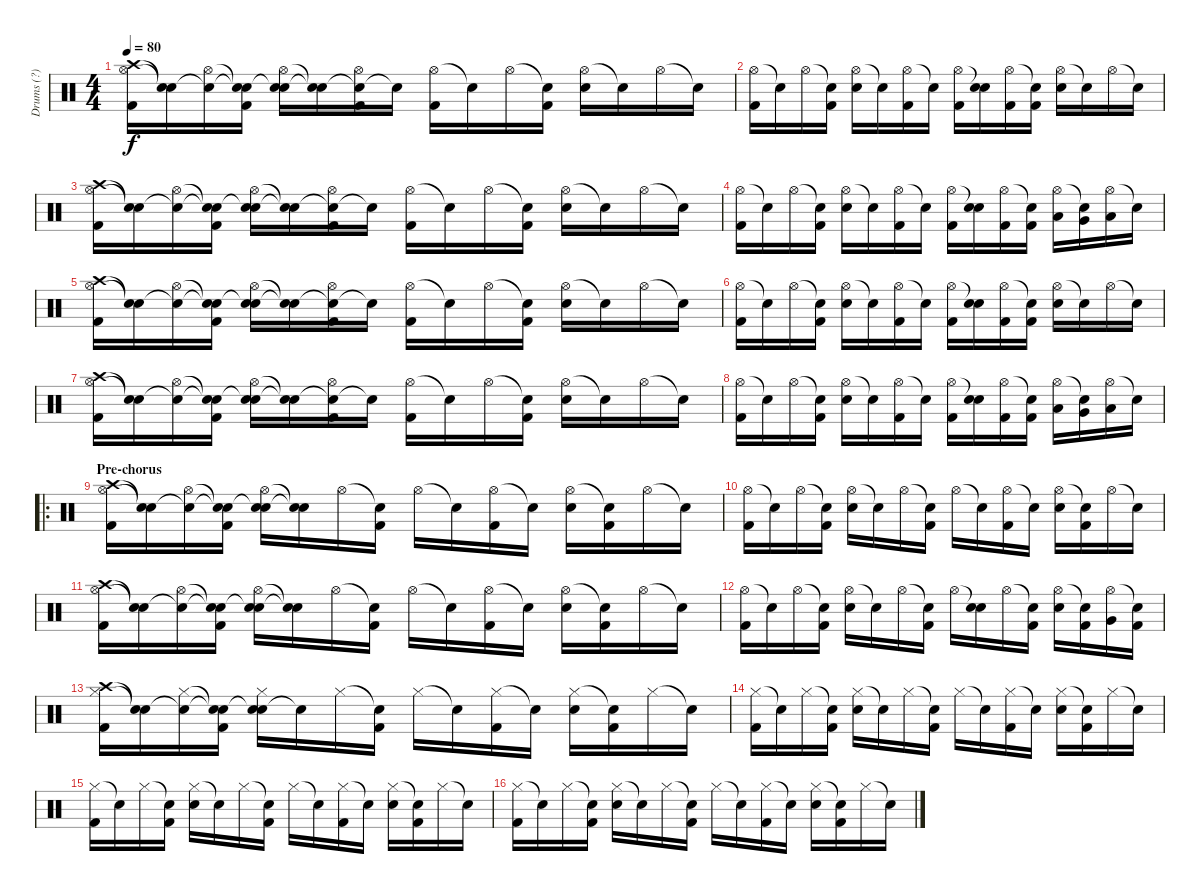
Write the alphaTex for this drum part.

\track ("Drums (?)" "Drums (?)") {instrument percussion}
\staff {score}
\articulation defaults
\ts (4 4)
\tempo 80
\clef neutral
\ks c
("Crash high (hit)" "Hi-Hat (open)" "Kick (hit) 2").16{dy f} ("Snare (hit)"{t} "Snare (hit)"{t}).16 ("Snare (hit)"{t} "Hi-Hat (open)").16 ("Snare (hit)"{t} "Snare (hit)"{t} "Kick (hit) 2").16 ("Snare (hit)"{t} "Hi-Hat (open)" "Electric Snare (hit)").16 ("Snare (hit)"{t} "Snare (hit)"{t}).16 ("Snare (hit)"{t} "Hi-Hat (open)" "Kick (hit) 2").16 "Snare (hit)"{t}.16 ("Hi-Hat (open)" "Kick (hit) 2").16 "Snare (hit)"{t}.16 "Hi-Hat (open)".16 ("Snare (hit)"{t} "Kick (hit) 2").16 ("Hi-Hat (open)" "Electric Snare (hit)").16 "Snare (hit)"{t}.16 "Hi-Hat (open)".16 "Snare (hit)"{t}.16 |
("Hi-Hat (open)" "Kick (hit) 2").16 "Snare (hit)"{t}.16 "Hi-Hat (open)".16 ("Snare (hit)"{t} "Kick (hit) 2").16 ("Hi-Hat (open)" "Electric Snare (hit)").16 "Snare (hit)"{t}.16 ("Hi-Hat (open)" "Kick (hit) 2").16 "Snare (hit)"{t}.16 ("Hi-Hat (open)" "Kick (hit) 2").16 ("Snare (hit)"{t} "Electric Snare (hit)").16 ("Hi-Hat (open)" "Kick (hit) 2").16 ("Snare (hit)"{t} "Kick (hit) 2").16 ("Hi-Hat (open)" "Electric Snare (hit)").16 "Snare (hit)"{t}.16 "Hi-Hat (open)".16 "Snare (hit)"{t}.16 |
("Crash high (hit)" "Hi-Hat (open)" "Kick (hit) 2").16 ("Snare (hit)"{t} "Snare (hit)"{t}).16 ("Snare (hit)"{t} "Hi-Hat (open)").16 ("Snare (hit)"{t} "Snare (hit)"{t} "Kick (hit) 2").16 ("Snare (hit)"{t} "Hi-Hat (open)" "Electric Snare (hit)").16 ("Snare (hit)"{t} "Snare (hit)"{t}).16 ("Snare (hit)"{t} "Hi-Hat (open)" "Kick (hit) 2").16 "Snare (hit)"{t}.16 ("Hi-Hat (open)" "Kick (hit) 2").16 "Snare (hit)"{t}.16 "Hi-Hat (open)".16 ("Snare (hit)"{t} "Kick (hit) 2").16 ("Hi-Hat (open)" "Electric Snare (hit)").16 "Snare (hit)"{t}.16 "Hi-Hat (open)".16 "Snare (hit)"{t}.16 |
("Hi-Hat (open)" "Kick (hit) 2").16 "Snare (hit)"{t}.16 "Hi-Hat (open)".16 ("Snare (hit)"{t} "Kick (hit) 2").16 ("Hi-Hat (open)" "Electric Snare (hit)").16 "Snare (hit)"{t}.16 ("Hi-Hat (open)" "Kick (hit) 2").16 "Snare (hit)"{t}.16 ("Hi-Hat (open)" "Kick (hit) 2").16 ("Snare (hit)"{t} "Electric Snare (hit)").16 ("Hi-Hat (open)" "Kick (hit) 2").16 ("Snare (hit)"{t} "Kick (hit) 2").16 ("Hi-Hat (open)" "Low Tom (hit)").16 ("Snare (hit)"{t} "Very Low Tom (hit)").16 ("Hi-Hat (open)" "Low Floor Tom (hit)").16 "Snare (hit)"{t}.16 |
("Crash high (hit)" "Hi-Hat (open)" "Kick (hit) 2").16 ("Snare (hit)"{t} "Snare (hit)"{t}).16 ("Snare (hit)"{t} "Hi-Hat (open)").16 ("Snare (hit)"{t} "Snare (hit)"{t} "Kick (hit) 2").16 ("Snare (hit)"{t} "Hi-Hat (open)" "Electric Snare (hit)").16 ("Snare (hit)"{t} "Snare (hit)"{t}).16 ("Snare (hit)"{t} "Hi-Hat (open)" "Kick (hit) 2").16 "Snare (hit)"{t}.16 ("Hi-Hat (open)" "Kick (hit) 2").16 "Snare (hit)"{t}.16 "Hi-Hat (open)".16 ("Snare (hit)"{t} "Kick (hit) 2").16 ("Hi-Hat (open)" "Electric Snare (hit)").16 "Snare (hit)"{t}.16 "Hi-Hat (open)".16 "Snare (hit)"{t}.16 |
("Hi-Hat (open)" "Kick (hit) 2").16 "Snare (hit)"{t}.16 "Hi-Hat (open)".16 ("Snare (hit)"{t} "Kick (hit) 2").16 ("Hi-Hat (open)" "Electric Snare (hit)").16 "Snare (hit)"{t}.16 ("Hi-Hat (open)" "Kick (hit) 2").16 "Snare (hit)"{t}.16 ("Hi-Hat (open)" "Kick (hit) 2").16 ("Snare (hit)"{t} "Electric Snare (hit)").16 ("Hi-Hat (open)" "Kick (hit) 2").16 ("Snare (hit)"{t} "Kick (hit) 2").16 ("Hi-Hat (open)" "Electric Snare (hit)").16 "Snare (hit)"{t}.16 "Hi-Hat (open)".16 "Snare (hit)"{t}.16 |
("Crash high (hit)" "Hi-Hat (open)" "Kick (hit) 2").16 ("Snare (hit)"{t} "Snare (hit)"{t}).16 ("Snare (hit)"{t} "Hi-Hat (open)").16 ("Snare (hit)"{t} "Snare (hit)"{t} "Kick (hit) 2").16 ("Snare (hit)"{t} "Hi-Hat (open)" "Electric Snare (hit)").16 ("Snare (hit)"{t} "Snare (hit)"{t}).16 ("Snare (hit)"{t} "Hi-Hat (open)" "Kick (hit) 2").16 "Snare (hit)"{t}.16 ("Hi-Hat (open)" "Kick (hit) 2").16 "Snare (hit)"{t}.16 "Hi-Hat (open)".16 ("Snare (hit)"{t} "Kick (hit) 2").16 ("Hi-Hat (open)" "Electric Snare (hit)").16 "Snare (hit)"{t}.16 "Hi-Hat (open)".16 "Snare (hit)"{t}.16 |
("Hi-Hat (open)" "Kick (hit) 2").16 "Snare (hit)"{t}.16 "Hi-Hat (open)".16 ("Snare (hit)"{t} "Kick (hit) 2").16 ("Hi-Hat (open)" "Electric Snare (hit)").16 "Snare (hit)"{t}.16 ("Hi-Hat (open)" "Kick (hit) 2").16 "Snare (hit)"{t}.16 ("Hi-Hat (open)" "Kick (hit) 2").16 ("Snare (hit)"{t} "Electric Snare (hit)").16 ("Hi-Hat (open)" "Kick (hit) 2").16 ("Snare (hit)"{t} "Kick (hit) 2").16 ("Hi-Hat (open)" "Low Tom (hit)").16 ("Snare (hit)"{t} "Very Low Tom (hit)").16 ("Hi-Hat (open)" "Low Floor Tom (hit)").16 "Snare (hit)"{t}.16 |
\ro
\section ("" "Pre-chorus")
("Crash high (hit)" "Hi-Hat (open)" "Kick (hit) 2").16 ("Snare (hit)"{t} "Snare (hit)"{t}).16 ("Snare (hit)"{t} "Hi-Hat (open)").16 ("Snare (hit)"{t} "Snare (hit)"{t} "Kick (hit) 2").16 ("Snare (hit)"{t} "Hi-Hat (open)" "Electric Snare (hit)").16 ("Snare (hit)"{t} "Snare (hit)"{t}).16 "Hi-Hat (open)".16 ("Snare (hit)"{t} "Kick (hit) 2").16 "Hi-Hat (open)".16 "Snare (hit)"{t}.16 ("Hi-Hat (open)" "Kick (hit) 2").16 "Snare (hit)"{t}.16 ("Hi-Hat (open)" "Electric Snare (hit)").16 ("Snare (hit)"{t} "Kick (hit) 2").16 "Hi-Hat (open)".16 "Snare (hit)"{t}.16 |
("Hi-Hat (open)" "Kick (hit) 2").16 "Snare (hit)"{t}.16 "Hi-Hat (open)".16 ("Snare (hit)"{t} "Kick (hit) 2").16 ("Hi-Hat (open)" "Electric Snare (hit)").16 "Snare (hit)"{t}.16 "Hi-Hat (open)".16 ("Snare (hit)"{t} "Kick (hit) 2").16 "Hi-Hat (open)".16 "Snare (hit)"{t}.16 ("Hi-Hat (open)" "Kick (hit) 2").16 "Snare (hit)"{t}.16 ("Hi-Hat (open)" "Electric Snare (hit)").16 ("Snare (hit)"{t} "Kick (hit) 2").16 "Hi-Hat (open)".16 "Snare (hit)"{t}.16 |
("Crash high (hit)" "Hi-Hat (open)" "Kick (hit) 2").16 ("Snare (hit)"{t} "Snare (hit)"{t}).16 ("Snare (hit)"{t} "Hi-Hat (open)").16 ("Snare (hit)"{t} "Snare (hit)"{t} "Kick (hit) 2").16 ("Snare (hit)"{t} "Hi-Hat (open)" "Electric Snare (hit)").16 ("Snare (hit)"{t} "Snare (hit)"{t}).16 "Hi-Hat (open)".16 ("Snare (hit)"{t} "Kick (hit) 2").16 "Hi-Hat (open)".16 "Snare (hit)"{t}.16 ("Hi-Hat (open)" "Kick (hit) 2").16 "Snare (hit)"{t}.16 ("Hi-Hat (open)" "Electric Snare (hit)").16 ("Snare (hit)"{t} "Kick (hit) 2").16 "Hi-Hat (open)".16 "Snare (hit)"{t}.16 |
("Hi-Hat (open)" "Kick (hit) 2").16 "Snare (hit)"{t}.16 "Hi-Hat (open)".16 ("Snare (hit)"{t} "Kick (hit) 2").16 ("Hi-Hat (open)" "Electric Snare (hit)").16 "Snare (hit)"{t}.16 "Hi-Hat (open)".16 ("Snare (hit)"{t} "Kick (hit) 2").16 "Hi-Hat (open)".16 ("Snare (hit)"{t} "Electric Snare (hit)").16 "Hi-Hat (open)".16 ("Snare (hit)"{t} "Kick (hit) 2").16 ("Hi-Hat (open)" "Electric Snare (hit)").16 ("Snare (hit)"{t} "Kick (hit) 2").16 ("Hi-Hat (open)" "Very Low Tom (hit)").16 ("Snare (hit)"{t} "Kick (hit) 2").16 |
("Crash high (hit)" "Hi-Hat (closed)" "Kick (hit) 2").16 ("Snare (hit)"{t} "Snare (hit)"{t}).16 ("Snare (hit)"{t} "Hi-Hat (closed)").16 ("Snare (hit)"{t} "Snare (hit)"{t} "Kick (hit) 2").16 ("Snare (hit)"{t} "Hi-Hat (closed)" "Electric Snare (hit)").16 "Snare (hit)"{t}.16 "Hi-Hat (closed)".16 ("Snare (hit)"{t} "Kick (hit) 2").16 "Hi-Hat (closed)".16 "Snare (hit)"{t}.16 ("Hi-Hat (closed)" "Kick (hit) 2").16 "Snare (hit)"{t}.16 ("Hi-Hat (closed)" "Electric Snare (hit)").16 ("Snare (hit)"{t} "Kick (hit) 2").16 "Hi-Hat (closed)".16 "Snare (hit)"{t}.16 |
("Hi-Hat (closed)" "Kick (hit) 2").16 "Snare (hit)"{t}.16 "Hi-Hat (closed)".16 ("Snare (hit)"{t} "Kick (hit) 2").16 ("Hi-Hat (closed)" "Electric Snare (hit)").16 "Snare (hit)"{t}.16 "Hi-Hat (closed)".16 ("Snare (hit)"{t} "Kick (hit) 2").16 "Hi-Hat (closed)".16 "Snare (hit)"{t}.16 ("Hi-Hat (closed)" "Kick (hit) 2").16 "Snare (hit)"{t}.16 ("Hi-Hat (closed)" "Electric Snare (hit)").16 ("Snare (hit)"{t} "Kick (hit) 2").16 "Hi-Hat (closed)".16 "Snare (hit)"{t}.16 |
("Hi-Hat (closed)" "Kick (hit) 2").16 "Snare (hit)"{t}.16 "Hi-Hat (closed)".16 ("Snare (hit)"{t} "Kick (hit) 2").16 ("Hi-Hat (closed)" "Electric Snare (hit)").16 "Snare (hit)"{t}.16 "Hi-Hat (closed)".16 ("Snare (hit)"{t} "Kick (hit) 2").16 "Hi-Hat (closed)".16 "Snare (hit)"{t}.16 ("Hi-Hat (closed)" "Kick (hit) 2").16 "Snare (hit)"{t}.16 ("Hi-Hat (closed)" "Electric Snare (hit)").16 ("Snare (hit)"{t} "Kick (hit) 2").16 "Hi-Hat (closed)".16 "Snare (hit)"{t}.16 |
("Hi-Hat (closed)" "Kick (hit) 2").16 "Snare (hit)"{t}.16 "Hi-Hat (closed)".16 ("Snare (hit)"{t} "Kick (hit) 2").16 ("Hi-Hat (closed)" "Electric Snare (hit)").16 "Snare (hit)"{t}.16 "Hi-Hat (closed)".16 ("Snare (hit)"{t} "Kick (hit) 2").16 "Hi-Hat (closed)".16 "Snare (hit)"{t}.16 ("Hi-Hat (closed)" "Kick (hit) 2").16 "Snare (hit)"{t}.16 ("Hi-Hat (closed)" "Electric Snare (hit)").16 ("Snare (hit)"{t} "Kick (hit) 2").16 "Hi-Hat (closed)".16 "Snare (hit)"{t}.16
